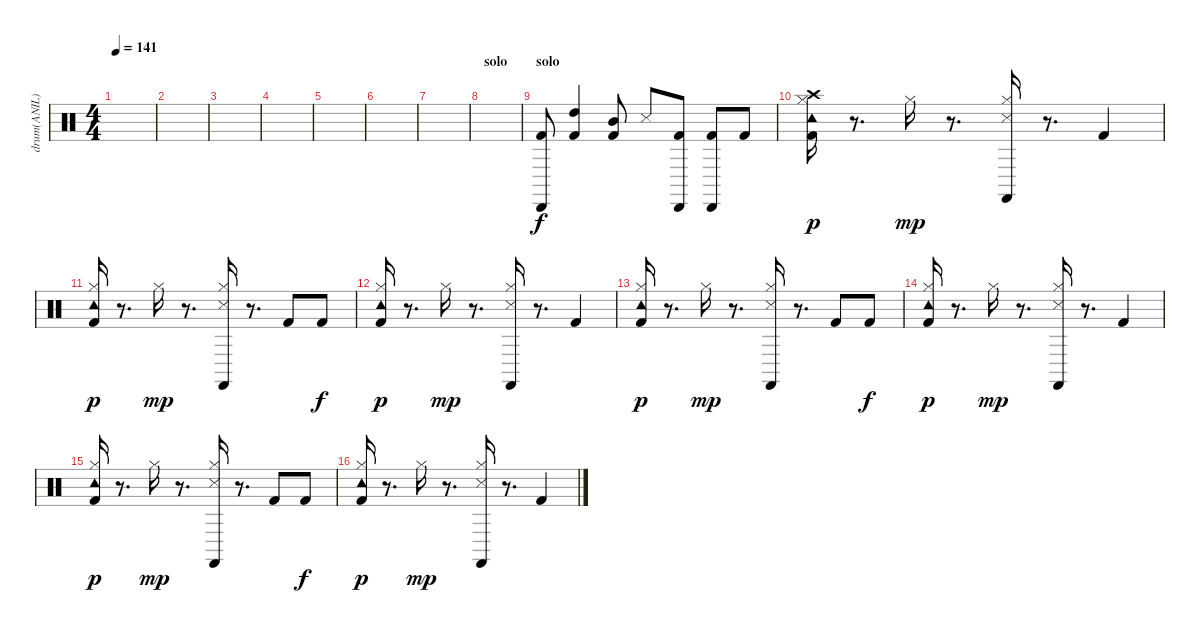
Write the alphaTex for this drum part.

\track ("drum(ANIL)" "drum(ANIL)") {instrument percussion}
\staff {score}
\articulation defaults
\ts (4 4)
\tempo 141
\clef neutral
\ks c
|
|
|
|
|
|
|
\section ("" "solo")
|
\section ("" "solo")
("Kick (hit) 2" "Cabasa (hit)").8 ("High Tom (hit)" "Kick (hit) 2").4 ("Mid Tom (hit)" "Kick (hit) 2").8 "Snare (side stick) 3".8 ("Kick (hit) 2" "Cabasa (hit)").8 ("Kick (hit) 2" "Cabasa (hit)").8 "Kick (hit) 2".8 |
("Kick (hit) 2" "Hi-Hat (closed)" "Tambourine (hit)" "Crash high (hit)").16{dy p} r.8{d} "Hi-Hat (closed)".16{dy mp} r.8{d} ("Castanets (hit)" "Snare (side stick) 3" "Hi-Hat (closed)").16 r.8{d} "Kick (hit) 2".4 |
("Kick (hit) 2" "Hi-Hat (closed)" "Tambourine (hit)").16{dy p} r.8{d} "Hi-Hat (closed)".16{dy mp} r.8{d} ("Castanets (hit)" "Snare (side stick) 3" "Hi-Hat (closed)").16 r.8{d} "Kick (hit) 2".8 "Kick (hit) 2".8{dy f} |
("Kick (hit) 2" "Hi-Hat (closed)" "Tambourine (hit)").16{dy p} r.8{d} "Hi-Hat (closed)".16{dy mp} r.8{d} ("Castanets (hit)" "Snare (side stick) 3" "Hi-Hat (closed)").16 r.8{d} "Kick (hit) 2".4 |
("Kick (hit) 2" "Hi-Hat (closed)" "Tambourine (hit)").16{dy p} r.8{d} "Hi-Hat (closed)".16{dy mp} r.8{d} ("Castanets (hit)" "Snare (side stick) 3" "Hi-Hat (closed)").16 r.8{d} "Kick (hit) 2".8 "Kick (hit) 2".8{dy f} |
("Kick (hit) 2" "Hi-Hat (closed)" "Tambourine (hit)").16{dy p} r.8{d} "Hi-Hat (closed)".16{dy mp} r.8{d} ("Castanets (hit)" "Snare (side stick) 3" "Hi-Hat (closed)").16 r.8{d} "Kick (hit) 2".4 |
("Kick (hit) 2" "Hi-Hat (closed)" "Tambourine (hit)").16{dy p} r.8{d} "Hi-Hat (closed)".16{dy mp} r.8{d} ("Castanets (hit)" "Snare (side stick) 3" "Hi-Hat (closed)").16 r.8{d} "Kick (hit) 2".8 "Kick (hit) 2".8{dy f} |
("Kick (hit) 2" "Hi-Hat (closed)" "Tambourine (hit)").16{dy p} r.8{d} "Hi-Hat (closed)".16{dy mp} r.8{d} ("Castanets (hit)" "Snare (side stick) 3" "Hi-Hat (closed)").16 r.8{d} "Kick (hit) 2".4
